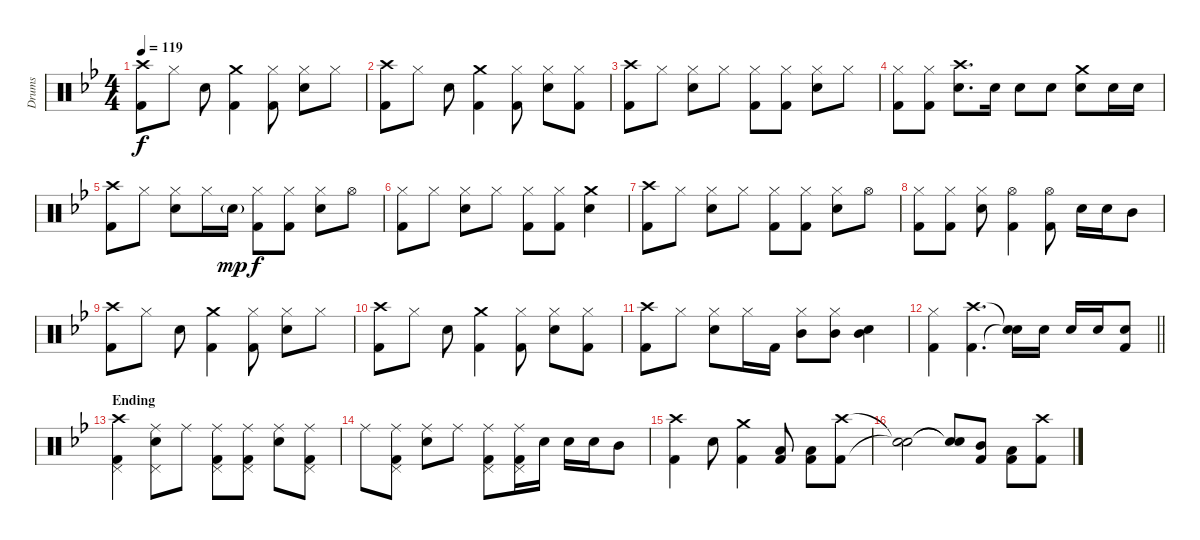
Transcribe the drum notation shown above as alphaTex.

\track ("Drums" "Drums") {instrument percussion}
\staff {score}
\articulation defaults
\ts (4 4)
\tempo 119
\clef neutral
\ks bb
("Crash high (hit)" "Kick (hit) 2").8{dy f} "Hi-Hat (closed)".8 "Snare (hit) 2".8 ("Crash medium (hit)" "Kick (hit) 2").4 ("Hi-Hat (closed)" "Kick (hit) 2").8 ("Hi-Hat (closed)" "Snare (hit) 2").8 "Hi-Hat (closed)".8 |
("Crash high (hit)" "Kick (hit) 2").8 "Hi-Hat (closed)".8 "Snare (hit) 2".8 ("Crash medium (hit)" "Kick (hit) 2").4 ("Hi-Hat (closed)" "Kick (hit) 2").8 ("Hi-Hat (closed)" "Snare (hit) 2").8 ("Hi-Hat (closed)" "Kick (hit) 2").8 |
("Crash high (hit)" "Kick (hit) 2").8 "Hi-Hat (closed)".8 ("Hi-Hat (closed)" "Snare (hit) 2").8 "Hi-Hat (closed)".8 ("Hi-Hat (closed)" "Kick (hit) 2").8 ("Hi-Hat (closed)" "Kick (hit) 2").8 ("Hi-Hat (closed)" "Snare (hit) 2").8 "Hi-Hat (closed)".8 |
("Hi-Hat (closed)" "Kick (hit) 2").8 ("Hi-Hat (closed)" "Kick (hit) 2").8 ("Crash high (hit)" "Snare (hit) 2").8{d} "Snare (hit) 2".16 "Snare (hit) 2".8 "Snare (hit) 2".8 ("Crash medium (hit)" "Snare (hit) 2").8 "Snare (hit) 2".16 "Snare (hit) 2".16 |
("Crash high (hit)" "Kick (hit) 2").8 "Hi-Hat (closed)".8 ("Hi-Hat (closed)" "Snare (hit) 2").8 "Hi-Hat (closed)".16 "Snare (hit) 2"{g}.16{dy mp} ("Hi-Hat (closed)" "Kick (hit) 2").8{dy f} ("Hi-Hat (closed)" "Kick (hit) 2").8 ("Hi-Hat (closed)" "Snare (hit) 2").8 "Hi-Hat (open)".8 |
("Hi-Hat (closed)" "Kick (hit) 2").8 "Hi-Hat (closed)".8 ("Hi-Hat (closed)" "Snare (hit) 2").8 "Hi-Hat (closed)".8 ("Hi-Hat (closed)" "Kick (hit) 2").8 ("Hi-Hat (closed)" "Kick (hit) 2").8 ("Crash medium (hit)" "Snare (hit) 2").4 |
("Crash high (hit)" "Kick (hit) 2").8 "Hi-Hat (closed)".8 ("Hi-Hat (closed)" "Snare (hit) 2").8 "Hi-Hat (closed)".8 ("Hi-Hat (closed)" "Kick (hit) 2").8 ("Hi-Hat (closed)" "Kick (hit) 2").8 ("Hi-Hat (closed)" "Snare (hit) 2").8 "Hi-Hat (open)".8 |
("Hi-Hat (closed)" "Kick (hit) 2").8 ("Hi-Hat (closed)" "Kick (hit) 2").8 ("Hi-Hat (closed)" "Snare (hit) 2").8 ("Hi-Hat (open)" "Kick (hit) 2").4 ("Hi-Hat (open)" "Kick (hit) 2").8 "Snare (hit) 2".16 "Snare (hit) 2".16 "Mid Tom (hit)".8 |
("Crash high (hit)" "Kick (hit) 2").8 "Hi-Hat (closed)".8 "Snare (hit) 2".8 ("Crash medium (hit)" "Kick (hit) 2").4 ("Hi-Hat (closed)" "Kick (hit) 2").8 ("Hi-Hat (closed)" "Snare (hit) 2").8 "Hi-Hat (closed)".8 |
("Crash high (hit)" "Kick (hit) 2").8 "Hi-Hat (closed)".8 "Snare (hit) 2".8 ("Crash medium (hit)" "Kick (hit) 2").4 ("Hi-Hat (closed)" "Kick (hit) 2").8 ("Hi-Hat (closed)" "Snare (hit) 2").8 ("Hi-Hat (closed)" "Kick (hit) 2").8 |
("Crash high (hit)" "Kick (hit) 2").8 "Hi-Hat (closed)".8 ("Hi-Hat (closed)" "Snare (hit) 2").8 "Hi-Hat (closed)".16 "Kick (hit) 2".16 ("Mid Tom (hit)" "Hi-Hat (closed)").8 ("Mid Tom (hit)" "Hi-Hat (closed)").8 ("Mid Tom (hit)" "Snare (hit) 2").4 |
\barLineRight lightlight
("Hi-Hat (closed)" "Kick (hit) 2").4 ("Crash high (hit)" "Kick (hit) 2").4{d} ("Snare (hit)"{t} "Snare (hit)"{t}).16 "Snare (hit) 2".16 "Snare (hit) 2".16 "Snare (hit) 2".16 ("Snare (hit) 2" "Kick (hit) 2").8 |
\section ("" "Ending")
("Crash high (hit)" "Pedal Hi-Hat (hit)" "Kick (hit) 2").4 ("Ride (middle)" "Pedal Hi-Hat (hit)" "Snare (hit) 2").8 "Ride (middle)".8 ("Ride (middle)" "Pedal Hi-Hat (hit)" "Kick (hit) 2").8 ("Ride (middle)" "Pedal Hi-Hat (hit)" "Kick (hit) 2").8 ("Ride (middle)" "Snare (hit) 2").8 ("Ride (middle)" "Pedal Hi-Hat (hit)" "Kick (hit) 2").8 |
"Ride (middle)".8 ("Ride (middle)" "Pedal Hi-Hat (hit)" "Kick (hit) 2").8 ("Ride (middle)" "Snare (hit) 2").8 "Ride (middle)".8 ("Ride (middle)" "Pedal Hi-Hat (hit)" "Kick (hit) 2").8 ("Ride (middle)" "Pedal Hi-Hat (hit)" "Kick (hit) 2").16 "Snare (hit) 2".16 "Snare (hit) 2".16 "Snare (hit) 2".16 "Mid Tom (hit)".8 |
("Crash high (hit)" "Kick (hit) 2").4 "Snare (hit) 2".8 ("Crash medium (hit)" "Kick (hit) 2").4 ("Low Tom (hit)" "Kick (hit) 2").8 ("Low Tom (hit)" "Kick (hit) 2").8 ("Crash high (hit)" "Kick (hit) 2").8 |
("Snare (hit)"{t} "Snare (hit)"{t}).2 ("Snare (hit)"{t} "Snare (hit)"{t}).8 ("Mid Tom (hit)" "Kick (hit) 2").8 ("Low Tom (hit)" "Kick (hit) 2").8 ("Crash high (hit)" "Kick (hit) 2").8
